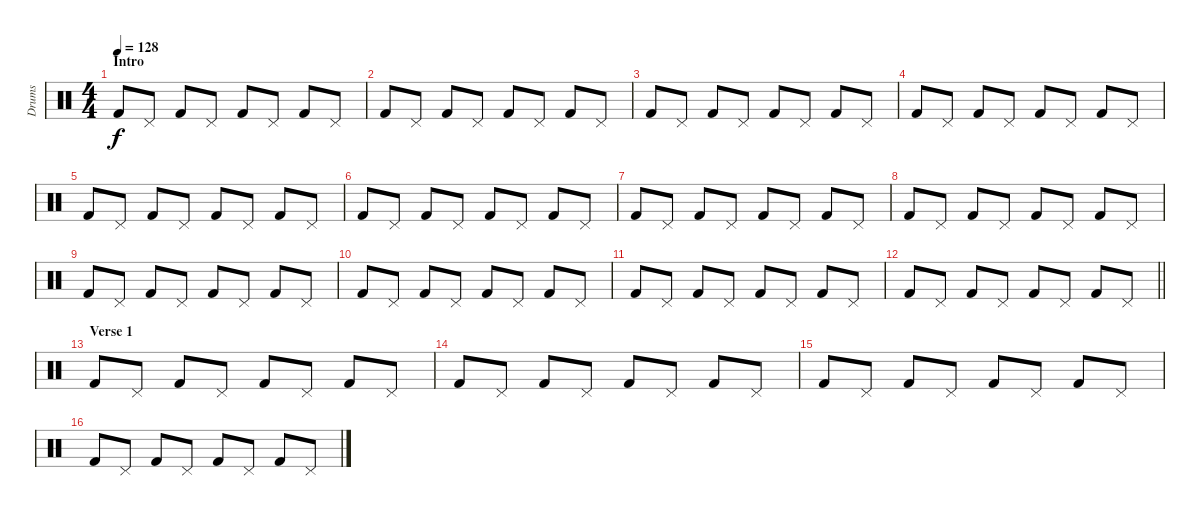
\track ("Drums" "Drums") {instrument percussion}
\staff {score}
\articulation defaults
\ts (4 4)
\section ("" "Intro")
\tempo 128
\clef neutral
\ks c "Kick (hit) 2".8{dy f} "Pedal Hi-Hat (hit)".8 "Kick (hit) 2".8 "Pedal Hi-Hat (hit)".8 "Kick (hit) 2".8 "Pedal Hi-Hat (hit)".8 "Kick (hit) 2".8 "Pedal Hi-Hat (hit)".8
|
"Kick (hit) 2".8 "Pedal Hi-Hat (hit)".8 "Kick (hit) 2".8 "Pedal Hi-Hat (hit)".8 "Kick (hit) 2".8 "Pedal Hi-Hat (hit)".8 "Kick (hit) 2".8 "Pedal Hi-Hat (hit)".8 |
"Kick (hit) 2".8 "Pedal Hi-Hat (hit)".8 "Kick (hit) 2".8 "Pedal Hi-Hat (hit)".8 "Kick (hit) 2".8 "Pedal Hi-Hat (hit)".8 "Kick (hit) 2".8 "Pedal Hi-Hat (hit)".8 |
"Kick (hit) 2".8 "Pedal Hi-Hat (hit)".8 "Kick (hit) 2".8 "Pedal Hi-Hat (hit)".8 "Kick (hit) 2".8 "Pedal Hi-Hat (hit)".8 "Kick (hit) 2".8 "Pedal Hi-Hat (hit)".8 |
"Kick (hit) 2".8 "Pedal Hi-Hat (hit)".8 "Kick (hit) 2".8 "Pedal Hi-Hat (hit)".8 "Kick (hit) 2".8 "Pedal Hi-Hat (hit)".8 "Kick (hit) 2".8 "Pedal Hi-Hat (hit)".8 |
"Kick (hit) 2".8 "Pedal Hi-Hat (hit)".8 "Kick (hit) 2".8 "Pedal Hi-Hat (hit)".8 "Kick (hit) 2".8 "Pedal Hi-Hat (hit)".8 "Kick (hit) 2".8 "Pedal Hi-Hat (hit)".8 |
"Kick (hit) 2".8 "Pedal Hi-Hat (hit)".8 "Kick (hit) 2".8 "Pedal Hi-Hat (hit)".8 "Kick (hit) 2".8 "Pedal Hi-Hat (hit)".8 "Kick (hit) 2".8 "Pedal Hi-Hat (hit)".8 |
"Kick (hit) 2".8 "Pedal Hi-Hat (hit)".8 "Kick (hit) 2".8 "Pedal Hi-Hat (hit)".8 "Kick (hit) 2".8 "Pedal Hi-Hat (hit)".8 "Kick (hit) 2".8 "Pedal Hi-Hat (hit)".8 |
"Kick (hit) 2".8 "Pedal Hi-Hat (hit)".8 "Kick (hit) 2".8 "Pedal Hi-Hat (hit)".8 "Kick (hit) 2".8 "Pedal Hi-Hat (hit)".8 "Kick (hit) 2".8 "Pedal Hi-Hat (hit)".8 |
"Kick (hit) 2".8 "Pedal Hi-Hat (hit)".8 "Kick (hit) 2".8 "Pedal Hi-Hat (hit)".8 "Kick (hit) 2".8 "Pedal Hi-Hat (hit)".8 "Kick (hit) 2".8 "Pedal Hi-Hat (hit)".8 |
"Kick (hit) 2".8 "Pedal Hi-Hat (hit)".8 "Kick (hit) 2".8 "Pedal Hi-Hat (hit)".8 "Kick (hit) 2".8 "Pedal Hi-Hat (hit)".8 "Kick (hit) 2".8 "Pedal Hi-Hat (hit)".8 |
\barLineRight lightlight "Kick (hit) 2".8 "Pedal Hi-Hat (hit)".8 "Kick (hit) 2".8 "Pedal Hi-Hat (hit)".8 "Kick (hit) 2".8 "Pedal Hi-Hat (hit)".8 "Kick (hit) 2".8 "Pedal Hi-Hat (hit)".8
|
\section ("" "Verse 1")
"Kick (hit) 2".8 "Pedal Hi-Hat (hit)".8 "Kick (hit) 2".8 "Pedal Hi-Hat (hit)".8 "Kick (hit) 2".8 "Pedal Hi-Hat (hit)".8 "Kick (hit) 2".8 "Pedal Hi-Hat (hit)".8 |
"Kick (hit) 2".8 "Pedal Hi-Hat (hit)".8 "Kick (hit) 2".8 "Pedal Hi-Hat (hit)".8 "Kick (hit) 2".8 "Pedal Hi-Hat (hit)".8 "Kick (hit) 2".8 "Pedal Hi-Hat (hit)".8 |
"Kick (hit) 2".8 "Pedal Hi-Hat (hit)".8 "Kick (hit) 2".8 "Pedal Hi-Hat (hit)".8 "Kick (hit) 2".8 "Pedal Hi-Hat (hit)".8 "Kick (hit) 2".8 "Pedal Hi-Hat (hit)".8 |
"Kick (hit) 2".8 "Pedal Hi-Hat (hit)".8 "Kick (hit) 2".8 "Pedal Hi-Hat (hit)".8 "Kick (hit) 2".8 "Pedal Hi-Hat (hit)".8 "Kick (hit) 2".8 "Pedal Hi-Hat (hit)".8
